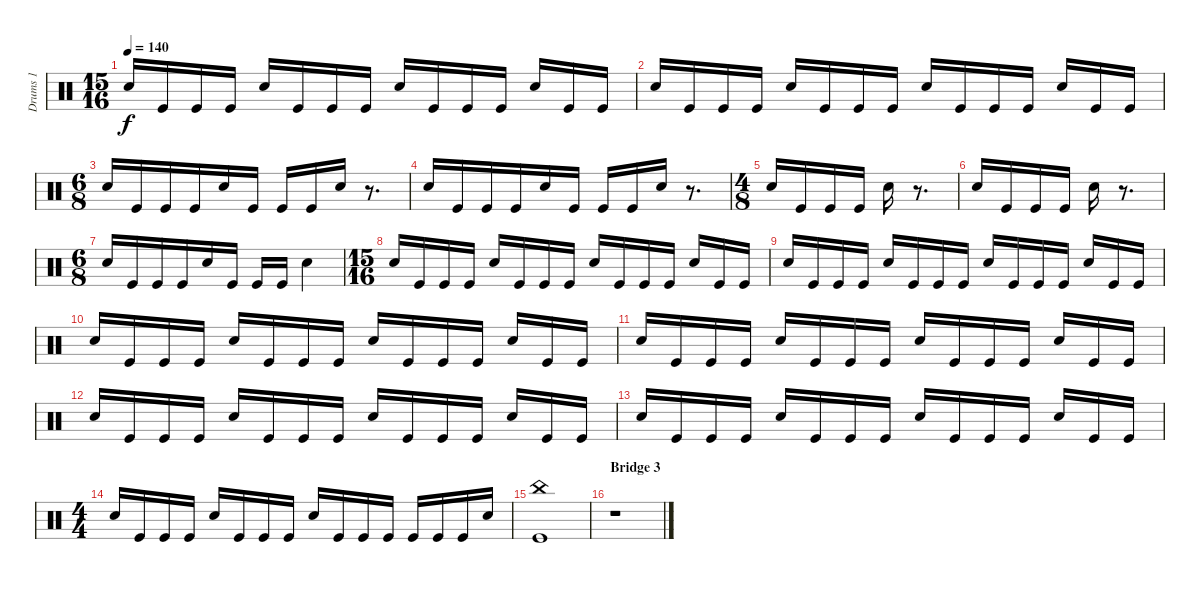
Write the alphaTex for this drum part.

\track ("Drums 1" "Drums 1") {instrument percussion}
\staff {score}
\articulation defaults
\ts (15 16)
\tempo 140
\clef neutral
\ks c "Snare (hit) 2".16{dy f} "Kick (hit)".16 "Kick (hit)".16 "Kick (hit)".16 "Snare (hit) 2".16 "Kick (hit)".16 "Kick (hit)".16 "Kick (hit)".16 "Snare (hit) 2".16 "Kick (hit)".16 "Kick (hit)".16 "Kick (hit)".16 "Snare (hit) 2".16 "Kick (hit)".16 "Kick (hit)".16
|
"Snare (hit) 2".16 "Kick (hit)".16 "Kick (hit)".16 "Kick (hit)".16 "Snare (hit) 2".16 "Kick (hit)".16 "Kick (hit)".16 "Kick (hit)".16 "Snare (hit) 2".16 "Kick (hit)".16 "Kick (hit)".16 "Kick (hit)".16 "Snare (hit) 2".16 "Kick (hit)".16 "Kick (hit)".16 |
\ts (6 8)
"Snare (hit) 2".16 "Kick (hit)".16 "Kick (hit)".16 "Kick (hit)".16 "Snare (hit) 2".16 "Kick (hit)".16 "Kick (hit)".16 "Kick (hit)".16 "Snare (hit) 2".16 r.8{d} |
"Snare (hit) 2".16 "Kick (hit)".16 "Kick (hit)".16 "Kick (hit)".16 "Snare (hit) 2".16 "Kick (hit)".16 "Kick (hit)".16 "Kick (hit)".16 "Snare (hit) 2".16 r.8{d} |
\ts (4 8)
"Snare (hit) 2".16 "Kick (hit)".16 "Kick (hit)".16 "Kick (hit)".16 "Snare (hit) 2".16 r.8{d} |
"Snare (hit) 2".16 "Kick (hit)".16 "Kick (hit)".16 "Kick (hit)".16 "Snare (hit) 2".16 r.8{d} |
\ts (6 8)
"Snare (hit) 2".16 "Kick (hit)".16 "Kick (hit)".16 "Kick (hit)".16 "Snare (hit) 2".16 "Kick (hit)".16 "Kick (hit)".16 "Kick (hit)".16 "Snare (hit) 2".4 |
\ts (15 16)
"Snare (hit) 2".16 "Kick (hit)".16 "Kick (hit)".16 "Kick (hit)".16 "Snare (hit) 2".16 "Kick (hit)".16 "Kick (hit)".16 "Kick (hit)".16 "Snare (hit) 2".16 "Kick (hit)".16 "Kick (hit)".16 "Kick (hit)".16 "Snare (hit) 2".16 "Kick (hit)".16 "Kick (hit)".16 |
"Snare (hit) 2".16 "Kick (hit)".16 "Kick (hit)".16 "Kick (hit)".16 "Snare (hit) 2".16 "Kick (hit)".16 "Kick (hit)".16 "Kick (hit)".16 "Snare (hit) 2".16 "Kick (hit)".16 "Kick (hit)".16 "Kick (hit)".16 "Snare (hit) 2".16 "Kick (hit)".16 "Kick (hit)".16 |
"Snare (hit) 2".16 "Kick (hit)".16 "Kick (hit)".16 "Kick (hit)".16 "Snare (hit) 2".16 "Kick (hit)".16 "Kick (hit)".16 "Kick (hit)".16 "Snare (hit) 2".16 "Kick (hit)".16 "Kick (hit)".16 "Kick (hit)".16 "Snare (hit) 2".16 "Kick (hit)".16 "Kick (hit)".16 |
"Snare (hit) 2".16 "Kick (hit)".16 "Kick (hit)".16 "Kick (hit)".16 "Snare (hit) 2".16 "Kick (hit)".16 "Kick (hit)".16 "Kick (hit)".16 "Snare (hit) 2".16 "Kick (hit)".16 "Kick (hit)".16 "Kick (hit)".16 "Snare (hit) 2".16 "Kick (hit)".16 "Kick (hit)".16 |
"Snare (hit) 2".16 "Kick (hit)".16 "Kick (hit)".16 "Kick (hit)".16 "Snare (hit) 2".16 "Kick (hit)".16 "Kick (hit)".16 "Kick (hit)".16 "Snare (hit) 2".16 "Kick (hit)".16 "Kick (hit)".16 "Kick (hit)".16 "Snare (hit) 2".16 "Kick (hit)".16 "Kick (hit)".16 |
"Snare (hit) 2".16 "Kick (hit)".16 "Kick (hit)".16 "Kick (hit)".16 "Snare (hit) 2".16 "Kick (hit)".16 "Kick (hit)".16 "Kick (hit)".16 "Snare (hit) 2".16 "Kick (hit)".16 "Kick (hit)".16 "Kick (hit)".16 "Snare (hit) 2".16 "Kick (hit)".16 "Kick (hit)".16 |
\ts (4 4)
"Snare (hit) 2".16 "Kick (hit)".16 "Kick (hit)".16 "Kick (hit)".16 "Snare (hit) 2".16 "Kick (hit)".16 "Kick (hit)".16 "Kick (hit)".16 "Snare (hit) 2".16 "Kick (hit)".16 "Kick (hit)".16 "Kick (hit)".16 "Kick (hit)".16 "Kick (hit)".16 "Kick (hit)".16 "Snare (hit) 2".16 |
("Kick (hit)" "China (hit)").1 |
\section ("" "Bridge 3")
r.1
